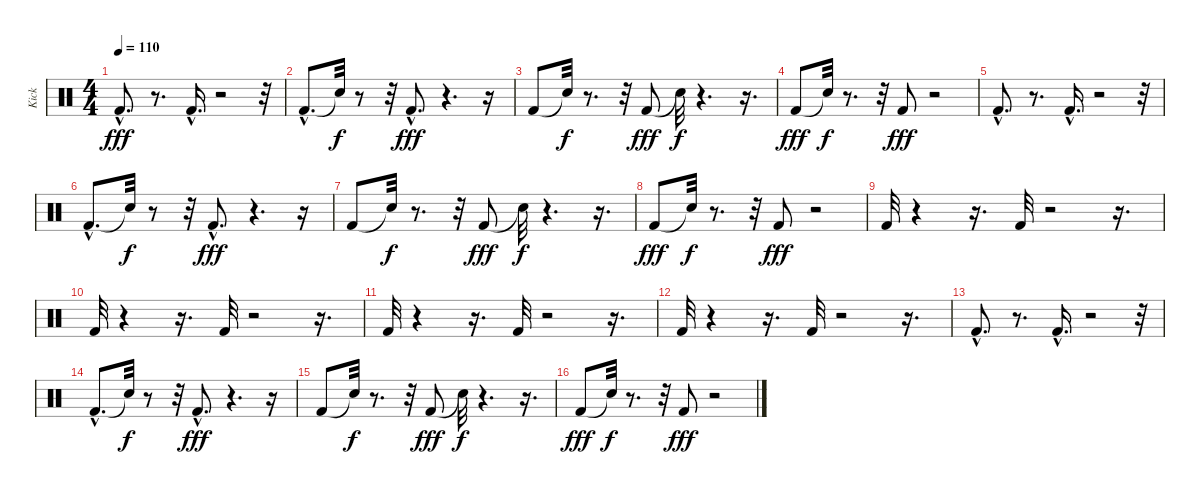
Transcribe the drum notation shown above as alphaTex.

\track ("Kick" "Kick") {instrument percussion}
\staff {score}
\articulation defaults
\ts (4 4)
\tempo 110
\clef neutral
\ks c "Kick (hit) 2"{hac}.8{d dy fff}
r.8{d} "Kick (hit) 2"{hac}.16{d} r.2 r.32 |
"Kick (hit) 2"{hac}.8{d} "Snare (hit)"{t}.32{dy f} r.8 r.32 "Kick (hit) 2"{hac}.8{d dy fff} r.4{d} r.16 |
"Kick (hit) 2".8 "Snare (hit)"{t}.32{dy f} r.8{d} r.32 "Kick (hit) 2".8{dy fff} "Snare (hit)"{t}.32{dy f} r.4{d} r.16{d} |
"Kick (hit) 2".8{dy fff} "Snare (hit)"{t}.32{dy f} r.8{d} r.32 "Kick (hit) 2".8{dy fff} r.2 |
"Kick (hit) 2"{hac}.8{d} r.8{d} "Kick (hit) 2"{hac}.16{d} r.2 r.32 |
"Kick (hit) 2"{hac}.8{d} "Snare (hit)"{t}.32{dy f} r.8 r.32 "Kick (hit) 2"{hac}.8{d dy fff} r.4{d} r.16 |
"Kick (hit) 2".8 "Snare (hit)"{t}.32{dy f} r.8{d} r.32 "Kick (hit) 2".8{dy fff} "Snare (hit)"{t}.32{dy f} r.4{d} r.16{d} |
"Kick (hit) 2".8{dy fff} "Snare (hit)"{t}.32{dy f} r.8{d} r.32 "Kick (hit) 2".8{dy fff} r.2 |
"Kick (hit) 2".32 r.4 r.16{d} "Kick (hit) 2".32 r.2 r.16{d} |
"Kick (hit) 2".32 r.4 r.16{d} "Kick (hit) 2".32 r.2 r.16{d} |
"Kick (hit) 2".32 r.4 r.16{d} "Kick (hit) 2".32 r.2 r.16{d} |
"Kick (hit) 2".32 r.4 r.16{d} "Kick (hit) 2".32 r.2 r.16{d} |
"Kick (hit) 2"{hac}.8{d} r.8{d} "Kick (hit) 2"{hac}.16{d} r.2 r.32 |
"Kick (hit) 2"{hac}.8{d} "Snare (hit)"{t}.32{dy f} r.8 r.32 "Kick (hit) 2"{hac}.8{d dy fff} r.4{d} r.16 |
"Kick (hit) 2".8 "Snare (hit)"{t}.32{dy f} r.8{d} r.32 "Kick (hit) 2".8{dy fff} "Snare (hit)"{t}.32{dy f} r.4{d} r.16{d} |
"Kick (hit) 2".8{dy fff} "Snare (hit)"{t}.32{dy f} r.8{d} r.32 "Kick (hit) 2".8{dy fff} r.2
